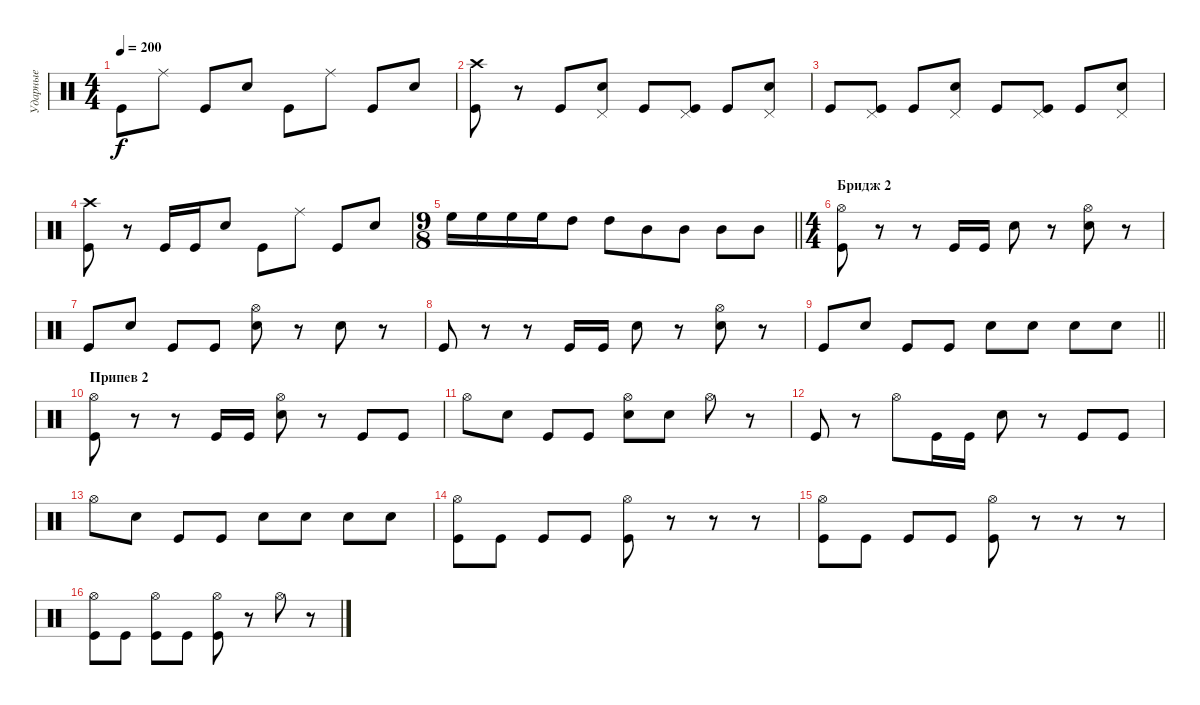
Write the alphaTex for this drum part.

\track ("Ударные" "Ударные") {instrument percussion}
\staff {score}
\articulation defaults
\ts (4 4)
\tempo 200
\clef neutral
\ks c "Kick (hit)".8{dy f} "Ride (middle)".8 "Kick (hit)".8 "Snare (hit) 2".8 "Kick (hit)".8 "Ride (middle)".8 "Kick (hit)".8 "Snare (hit) 2".8
|
("Crash high (hit)" "Kick (hit)").8 r.8 "Kick (hit)".8 ("Pedal Hi-Hat (hit)" "Snare (hit) 2").8 "Kick (hit)".8 ("Pedal Hi-Hat (hit)" "Kick (hit)").8 "Kick (hit)".8 ("Pedal Hi-Hat (hit)" "Snare (hit) 2").8 |
"Kick (hit)".8 ("Pedal Hi-Hat (hit)" "Kick (hit)").8 "Kick (hit)".8 ("Pedal Hi-Hat (hit)" "Snare (hit) 2").8 "Kick (hit)".8 ("Pedal Hi-Hat (hit)" "Kick (hit)").8 "Kick (hit)".8 ("Pedal Hi-Hat (hit)" "Snare (hit) 2").8 |
("Crash high (hit)" "Kick (hit)").8 r.8 "Kick (hit)".16 "Kick (hit)".16 "Snare (hit) 2".8 "Kick (hit)".8 "Ride (middle)".8 "Kick (hit)".8 "Snare (hit) 2".8 |
\ts (9 8)
\barLineRight lightlight "High Floor Tom (hit)".16 "High Floor Tom (hit)".16 "High Floor Tom (hit)".16 "High Floor Tom (hit)".16 "High Tom (hit)".8 "High Tom (hit)".8 "Mid Tom (hit)".8 "Mid Tom (hit)".8 "Mid Tom (hit)".8 "Mid Tom (hit)".8
|
\ts (4 4)
\section ("" "Бридж 2")
("Hi-Hat (open)" "Kick (hit)").8 r.8 r.8 "Kick (hit)".16 "Kick (hit)".16 "Snare (hit) 2".8 r.8 ("Hi-Hat (open)" "Snare (hit) 2").8 r.8 |
"Kick (hit)".8 "Snare (hit) 2".8 "Kick (hit)".8 "Kick (hit)".8 ("Hi-Hat (open)" "Snare (hit) 2").8 r.8 "Snare (hit) 2".8 r.8 |
"Kick (hit)".8 r.8 r.8 "Kick (hit)".16 "Kick (hit)".16 "Snare (hit) 2".8 r.8 ("Hi-Hat (open)" "Snare (hit) 2").8 r.8 |
\barLineRight lightlight "Kick (hit)".8 "Snare (hit) 2".8 "Kick (hit)".8 "Kick (hit)".8 "Snare (hit) 2".8 "Snare (hit) 2".8 "Snare (hit) 2".8 "Snare (hit) 2".8
|
\section ("" "Припев 2")
("Hi-Hat (open)" "Kick (hit)").8 r.8 r.8 "Kick (hit)".16 "Kick (hit)".16 ("Hi-Hat (open)" "Snare (hit) 2").8 r.8 "Kick (hit)".8 "Kick (hit)".8 |
"Hi-Hat (open)".8 "Snare (hit) 2".8 "Kick (hit)".8 "Kick (hit)".8 ("Hi-Hat (open)" "Snare (hit) 2").8 "Snare (hit) 2".8 "Hi-Hat (open)".8 r.8 |
"Kick (hit)".8 r.8 "Hi-Hat (open)".8 "Kick (hit)".16 "Kick (hit)".16 "Snare (hit) 2".8 r.8 "Kick (hit)".8 "Kick (hit)".8 |
"Hi-Hat (open)".8 "Snare (hit) 2".8 "Kick (hit)".8 "Kick (hit)".8 "Snare (hit) 2".8 "Snare (hit) 2".8 "Snare (hit) 2".8 "Snare (hit) 2".8 |
("Hi-Hat (open)" "Kick (hit)").8 "Kick (hit)".8 "Kick (hit)".8 "Kick (hit)".8 ("Hi-Hat (open)" "Kick (hit)").8 r.8 r.8 r.8 |
("Hi-Hat (open)" "Kick (hit)").8 "Kick (hit)".8 "Kick (hit)".8 "Kick (hit)".8 ("Hi-Hat (open)" "Kick (hit)").8 r.8 r.8 r.8 |
("Hi-Hat (open)" "Kick (hit)").8 "Kick (hit)".8 ("Hi-Hat (open)" "Kick (hit)").8 "Kick (hit)".8 ("Hi-Hat (open)" "Kick (hit)").8 r.8 "Hi-Hat (open)".8 r.8
